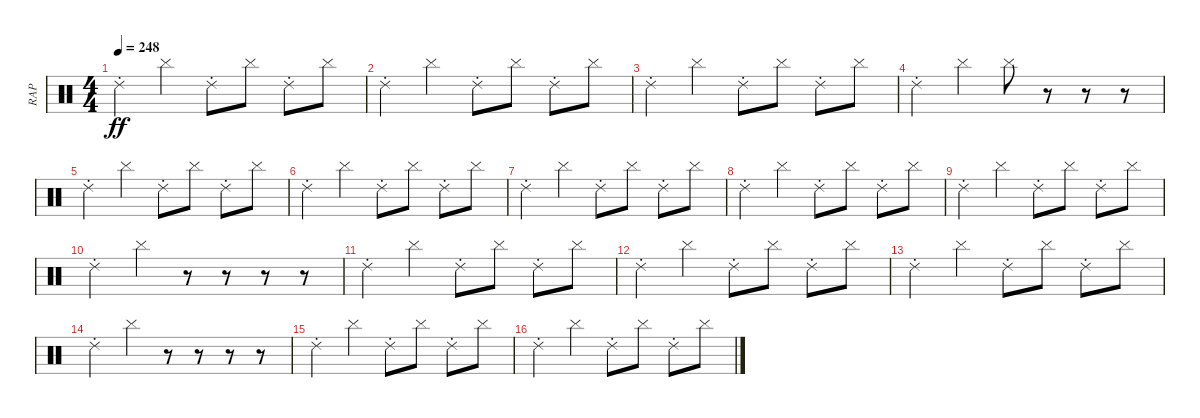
\track ("RAP" "RAP") {instrument percussion}
\staff {score}
\articulation defaults
\ts (4 4)
\tempo 248
\clef neutral
\ks c "Ride (choke) 2".4{dy ff} "Cymbal (hit)".4 "Ride (choke) 2".8 "Cymbal (hit)".8 "Ride (choke) 2".8 "Cymbal (hit)".8
|
"Ride (choke) 2".4 "Cymbal (hit)".4 "Ride (choke) 2".8 "Cymbal (hit)".8 "Ride (choke) 2".8 "Cymbal (hit)".8 |
"Ride (choke) 2".4 "Cymbal (hit)".4 "Ride (choke) 2".8 "Cymbal (hit)".8 "Ride (choke) 2".8 "Cymbal (hit)".8 |
"Ride (choke) 2".4 "Cymbal (hit)".4 "Cymbal (hit)".8 r.8 r.8 r.8 |
"Ride (choke) 2".4 "Cymbal (hit)".4 "Ride (choke) 2".8 "Cymbal (hit)".8 "Ride (choke) 2".8 "Cymbal (hit)".8 |
"Ride (choke) 2".4 "Cymbal (hit)".4 "Ride (choke) 2".8 "Cymbal (hit)".8 "Ride (choke) 2".8 "Cymbal (hit)".8 |
"Ride (choke) 2".4 "Cymbal (hit)".4 "Ride (choke) 2".8 "Cymbal (hit)".8 "Ride (choke) 2".8 "Cymbal (hit)".8 |
"Ride (choke) 2".4 "Cymbal (hit)".4 "Ride (choke) 2".8 "Cymbal (hit)".8 "Ride (choke) 2".8 "Cymbal (hit)".8 |
"Ride (choke) 2".4 "Cymbal (hit)".4 "Ride (choke) 2".8 "Cymbal (hit)".8 "Ride (choke) 2".8 "Cymbal (hit)".8 |
"Ride (choke) 2".4 "Cymbal (hit)".4 r.8 r.8 r.8 r.8 |
"Ride (choke) 2".4 "Cymbal (hit)".4 "Ride (choke) 2".8 "Cymbal (hit)".8 "Ride (choke) 2".8 "Cymbal (hit)".8 |
"Ride (choke) 2".4 "Cymbal (hit)".4 "Ride (choke) 2".8 "Cymbal (hit)".8 "Ride (choke) 2".8 "Cymbal (hit)".8 |
"Ride (choke) 2".4 "Cymbal (hit)".4 "Ride (choke) 2".8 "Cymbal (hit)".8 "Ride (choke) 2".8 "Cymbal (hit)".8 |
"Ride (choke) 2".4 "Cymbal (hit)".4 r.8 r.8 r.8 r.8 |
"Ride (choke) 2".4 "Cymbal (hit)".4 "Ride (choke) 2".8 "Cymbal (hit)".8 "Ride (choke) 2".8 "Cymbal (hit)".8 |
"Ride (choke) 2".4 "Cymbal (hit)".4 "Ride (choke) 2".8 "Cymbal (hit)".8 "Ride (choke) 2".8 "Cymbal (hit)".8
